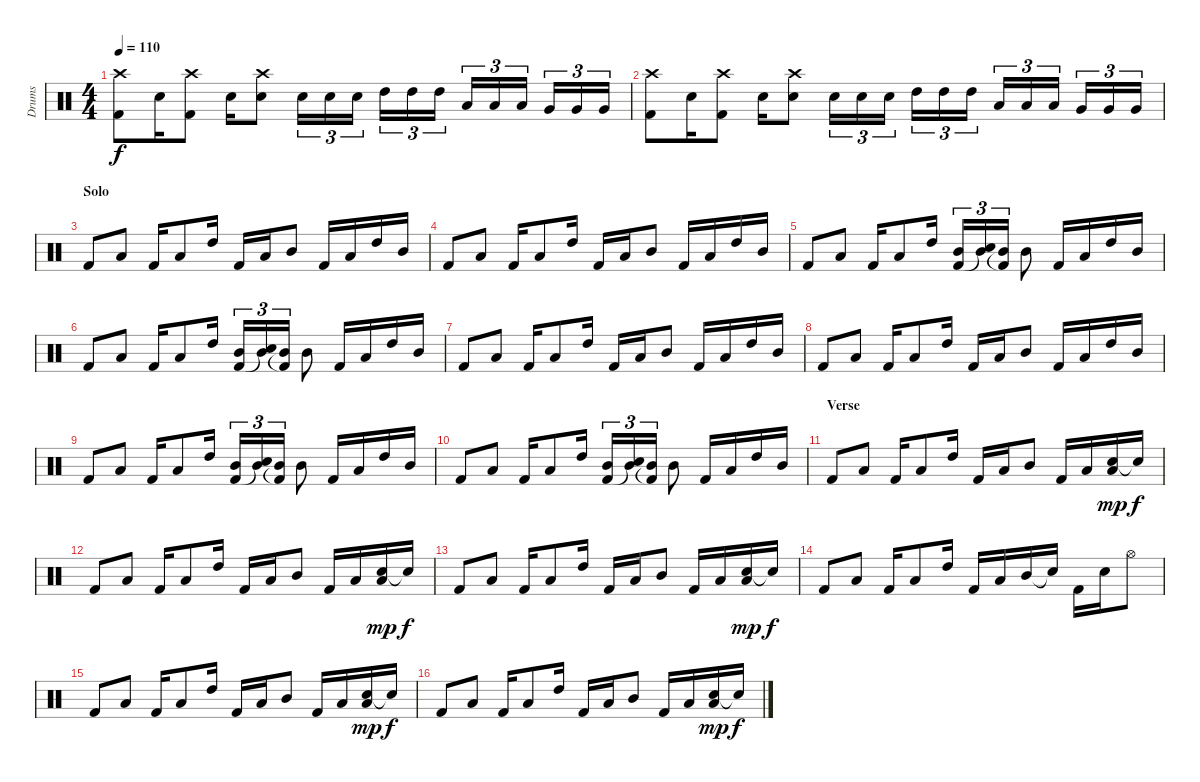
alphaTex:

\track ("Drums" "Drums") {instrument percussion}
\staff {score}
\articulation defaults
\ts (4 4)
\tempo 110
\clef neutral
\ks c
("Crash high (hit)" "Kick (hit) 2").8{dy f} "Snare (hit) 2".16 ("Crash high (hit)" "Kick (hit) 2").8 "Snare (hit) 2".16 ("Crash high (hit)" "Snare (hit) 2").8 "Snare (hit) 2".16{tu (3 2)} "Snare (hit) 2".16{tu (3 2)} "Snare (hit) 2".16{tu (3 2) beam splitsecondary} "High Tom (hit)".16{tu (3 2)} "High Tom (hit)".16{tu (3 2)} "High Tom (hit)".16{tu (3 2)} "Low Tom (hit)".16{tu (3 2)} "Low Tom (hit)".16{tu (3 2)} "Low Tom (hit)".16{tu (3 2) beam splitsecondary} "Very Low Tom (hit)".16{tu (3 2)} "Very Low Tom (hit)".16{tu (3 2)} "Very Low Tom (hit)".16{tu (3 2)} |
("Crash high (hit)" "Kick (hit) 2").8 "Snare (hit) 2".16 ("Crash high (hit)" "Kick (hit) 2").8 "Snare (hit) 2".16 ("Crash high (hit)" "Snare (hit) 2").8 "Snare (hit) 2".16{tu (3 2)} "Snare (hit) 2".16{tu (3 2)} "Snare (hit) 2".16{tu (3 2) beam splitsecondary} "High Tom (hit)".16{tu (3 2)} "High Tom (hit)".16{tu (3 2)} "High Tom (hit)".16{tu (3 2)} "Low Tom (hit)".16{tu (3 2)} "Low Tom (hit)".16{tu (3 2)} "Low Tom (hit)".16{tu (3 2) beam splitsecondary} "Very Low Tom (hit)".16{tu (3 2)} "Very Low Tom (hit)".16{tu (3 2)} "Very Low Tom (hit)".16{tu (3 2)} |
\section ("" "Solo")
"Kick (hit) 2".8 "Low Tom (hit)".8 "Kick (hit) 2".16 "Low Tom (hit)".8 "High Tom (hit)".16 "Kick (hit) 2".16 "Low Tom (hit)".16 "Mid Tom (hit)".8 "Kick (hit) 2".16 "Low Tom (hit)".16 "High Tom (hit)".16 "Mid Tom (hit)".16 |
"Kick (hit) 2".8 "Low Tom (hit)".8 "Kick (hit) 2".16 "Low Tom (hit)".8 "High Tom (hit)".16 "Kick (hit) 2".16 "Low Tom (hit)".16 "Mid Tom (hit)".8 "Kick (hit) 2".16 "Low Tom (hit)".16 "High Tom (hit)".16 "Mid Tom (hit)".16 |
"Kick (hit) 2".8 "Low Tom (hit)".8 "Kick (hit) 2".16 "Low Tom (hit)".8 "High Tom (hit)".16 ("Mid Tom (hit)" "Kick (hit) 2").16{tu (3 2)} ("Mid Tom (hit)" "Snare (hit)"{t}).16{tu (3 2)} ("Mid Tom (hit)" "Kick (hit) 2"{t}).16{tu (3 2)} "Mid Tom (hit)".8 "Kick (hit) 2".16 "Low Tom (hit)".16 "High Tom (hit)".16 "Mid Tom (hit)".16 |
"Kick (hit) 2".8 "Low Tom (hit)".8 "Kick (hit) 2".16 "Low Tom (hit)".8 "High Tom (hit)".16 ("Mid Tom (hit)" "Kick (hit) 2").16{tu (3 2)} ("Mid Tom (hit)" "Snare (hit)"{t}).16{tu (3 2)} ("Mid Tom (hit)" "Kick (hit) 2"{t}).16{tu (3 2)} "Mid Tom (hit)".8 "Kick (hit) 2".16 "Low Tom (hit)".16 "High Tom (hit)".16 "Mid Tom (hit)".16 |
"Kick (hit) 2".8 "Low Tom (hit)".8 "Kick (hit) 2".16 "Low Tom (hit)".8 "High Tom (hit)".16 "Kick (hit) 2".16 "Low Tom (hit)".16 "Mid Tom (hit)".8 "Kick (hit) 2".16 "Low Tom (hit)".16 "High Tom (hit)".16 "Mid Tom (hit)".16 |
"Kick (hit) 2".8 "Low Tom (hit)".8 "Kick (hit) 2".16 "Low Tom (hit)".8 "High Tom (hit)".16 "Kick (hit) 2".16 "Low Tom (hit)".16 "Mid Tom (hit)".8 "Kick (hit) 2".16 "Low Tom (hit)".16 "High Tom (hit)".16 "Mid Tom (hit)".16 |
"Kick (hit) 2".8 "Low Tom (hit)".8 "Kick (hit) 2".16 "Low Tom (hit)".8 "High Tom (hit)".16 ("Mid Tom (hit)" "Kick (hit) 2").16{tu (3 2)} ("Mid Tom (hit)" "Snare (hit)"{t}).16{tu (3 2)} ("Mid Tom (hit)" "Kick (hit) 2"{t}).16{tu (3 2)} "Mid Tom (hit)".8 "Kick (hit) 2".16 "Low Tom (hit)".16 "High Tom (hit)".16 "Mid Tom (hit)".16 |
"Kick (hit) 2".8 "Low Tom (hit)".8 "Kick (hit) 2".16 "Low Tom (hit)".8 "High Tom (hit)".16 ("Mid Tom (hit)" "Kick (hit) 2").16{tu (3 2)} ("Mid Tom (hit)" "Snare (hit)"{t}).16{tu (3 2)} ("Mid Tom (hit)" "Kick (hit) 2"{t}).16{tu (3 2)} "Mid Tom (hit)".8 "Kick (hit) 2".16 "Low Tom (hit)".16 "High Tom (hit)".16 "Mid Tom (hit)".16 |
\section ("" "Verse")
"Kick (hit) 2".8 "Low Tom (hit)".8 "Kick (hit) 2".16 "Low Tom (hit)".8 "High Tom (hit)".16 "Kick (hit) 2".16 "Low Tom (hit)".16 "Mid Tom (hit)".8 "Kick (hit) 2".16 "Low Tom (hit)".16 ("Snare (hit) 2" "Low Tom (hit)").16{dy mp} "Snare (hit)"{t}.16{dy f} |
"Kick (hit) 2".8 "Low Tom (hit)".8 "Kick (hit) 2".16 "Low Tom (hit)".8 "High Tom (hit)".16 "Kick (hit) 2".16 "Low Tom (hit)".16 "Mid Tom (hit)".8 "Kick (hit) 2".16 "Low Tom (hit)".16 ("Snare (hit) 2" "Low Tom (hit)").16{dy mp} "Snare (hit)"{t}.16{dy f} |
"Kick (hit) 2".8 "Low Tom (hit)".8 "Kick (hit) 2".16 "Low Tom (hit)".8 "High Tom (hit)".16 "Kick (hit) 2".16 "Low Tom (hit)".16 "Mid Tom (hit)".8 "Kick (hit) 2".16 "Low Tom (hit)".16 ("Snare (hit) 2" "Low Tom (hit)").16{dy mp} "Snare (hit)"{t}.16{dy f} |
"Kick (hit) 2".8 "Low Tom (hit)".8 "Kick (hit) 2".16 "Low Tom (hit)".8 "High Tom (hit)".16 "Kick (hit) 2".16 "Low Tom (hit)".16 "Mid Tom (hit)".16 "Snare (hit)"{t}.16 "Kick (hit) 2".16 "Snare (hit) 2".16 "Hi-Hat (open)".8 |
"Kick (hit) 2".8 "Low Tom (hit)".8 "Kick (hit) 2".16 "Low Tom (hit)".8 "High Tom (hit)".16 "Kick (hit) 2".16 "Low Tom (hit)".16 "Mid Tom (hit)".8 "Kick (hit) 2".16 "Low Tom (hit)".16 ("Snare (hit) 2" "Low Tom (hit)").16{dy mp} "Snare (hit)"{t}.16{dy f} |
"Kick (hit) 2".8 "Low Tom (hit)".8 "Kick (hit) 2".16 "Low Tom (hit)".8 "High Tom (hit)".16 "Kick (hit) 2".16 "Low Tom (hit)".16 "Mid Tom (hit)".8 "Kick (hit) 2".16 "Low Tom (hit)".16 ("Snare (hit) 2" "Low Tom (hit)").16{dy mp} "Snare (hit)"{t}.16{dy f}
